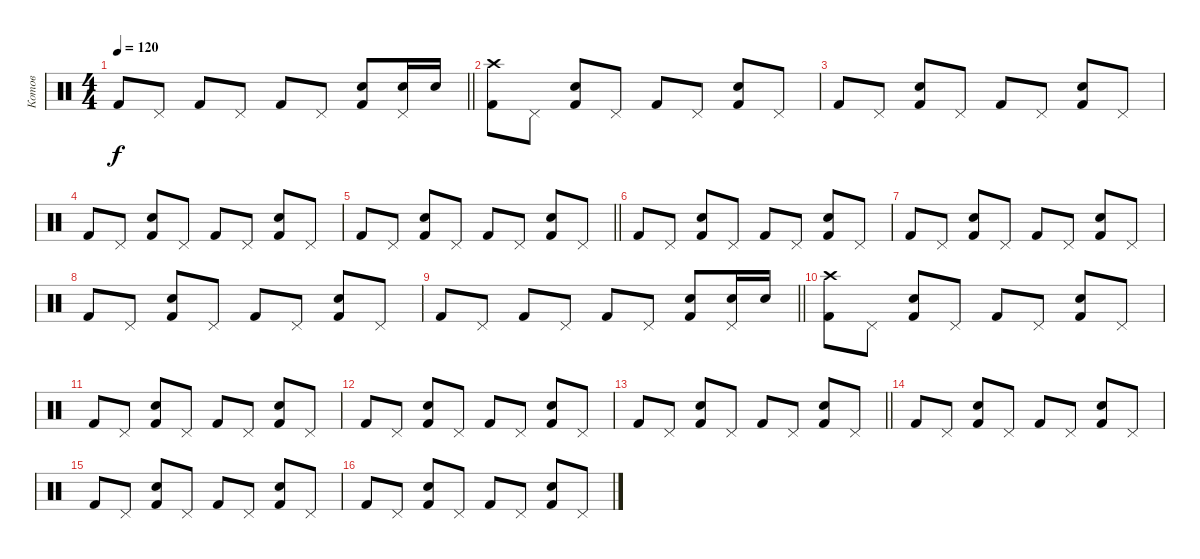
\track ("Котов" "Котов") {instrument percussion}
\staff {score}
\articulation defaults
\ts (4 4)
\tempo 120
\clef neutral
\barLineRight lightlight
\ks c "Kick (hit) 2".8{dy f} "Pedal Hi-Hat (hit)".8 "Kick (hit) 2".8 "Pedal Hi-Hat (hit)".8 "Kick (hit) 2".8 "Pedal Hi-Hat (hit)".8
("Kick (hit) 2" "Snare (hit) 2").8 ("Pedal Hi-Hat (hit)" "Snare (hit) 2").16 "Snare (hit) 2".16 |
("Kick (hit) 2" "Crash high (hit)").8 "Pedal Hi-Hat (hit)".8 ("Kick (hit) 2" "Snare (hit) 2").8 "Pedal Hi-Hat (hit)".8 "Kick (hit) 2".8 "Pedal Hi-Hat (hit)".8 ("Kick (hit) 2" "Snare (hit) 2").8 "Pedal Hi-Hat (hit)".8 |
"Kick (hit) 2".8 "Pedal Hi-Hat (hit)".8 ("Kick (hit) 2" "Snare (hit) 2").8 "Pedal Hi-Hat (hit)".8 "Kick (hit) 2".8 "Pedal Hi-Hat (hit)".8 ("Kick (hit) 2" "Snare (hit) 2").8 "Pedal Hi-Hat (hit)".8 |
"Kick (hit) 2".8 "Pedal Hi-Hat (hit)".8 ("Kick (hit) 2" "Snare (hit) 2").8 "Pedal Hi-Hat (hit)".8 "Kick (hit) 2".8 "Pedal Hi-Hat (hit)".8 ("Kick (hit) 2" "Snare (hit) 2").8 "Pedal Hi-Hat (hit)".8 |
\barLineRight lightlight "Kick (hit) 2".8 "Pedal Hi-Hat (hit)".8
("Kick (hit) 2" "Snare (hit) 2").8 "Pedal Hi-Hat (hit)".8 "Kick (hit) 2".8 "Pedal Hi-Hat (hit)".8 ("Kick (hit) 2" "Snare (hit) 2").8 "Pedal Hi-Hat (hit)".8 |
"Kick (hit) 2".8 "Pedal Hi-Hat (hit)".8 ("Kick (hit) 2" "Snare (hit) 2").8 "Pedal Hi-Hat (hit)".8 "Kick (hit) 2".8 "Pedal Hi-Hat (hit)".8 ("Kick (hit) 2" "Snare (hit) 2").8 "Pedal Hi-Hat (hit)".8 |
"Kick (hit) 2".8 "Pedal Hi-Hat (hit)".8 ("Kick (hit) 2" "Snare (hit) 2").8 "Pedal Hi-Hat (hit)".8 "Kick (hit) 2".8 "Pedal Hi-Hat (hit)".8 ("Kick (hit) 2" "Snare (hit) 2").8 "Pedal Hi-Hat (hit)".8 |
"Kick (hit) 2".8 "Pedal Hi-Hat (hit)".8 ("Kick (hit) 2" "Snare (hit) 2").8 "Pedal Hi-Hat (hit)".8 "Kick (hit) 2".8 "Pedal Hi-Hat (hit)".8 ("Kick (hit) 2" "Snare (hit) 2").8 "Pedal Hi-Hat (hit)".8 |
\barLineRight lightlight "Kick (hit) 2".8 "Pedal Hi-Hat (hit)".8 "Kick (hit) 2".8 "Pedal Hi-Hat (hit)".8 "Kick (hit) 2".8 "Pedal Hi-Hat (hit)".8
("Kick (hit) 2" "Snare (hit) 2").8 ("Pedal Hi-Hat (hit)" "Snare (hit) 2").16 "Snare (hit) 2".16 |
("Kick (hit) 2" "Crash high (hit)").8 "Pedal Hi-Hat (hit)".8 ("Kick (hit) 2" "Snare (hit) 2").8 "Pedal Hi-Hat (hit)".8 "Kick (hit) 2".8 "Pedal Hi-Hat (hit)".8 ("Kick (hit) 2" "Snare (hit) 2").8 "Pedal Hi-Hat (hit)".8 |
"Kick (hit) 2".8 "Pedal Hi-Hat (hit)".8 ("Kick (hit) 2" "Snare (hit) 2").8 "Pedal Hi-Hat (hit)".8 "Kick (hit) 2".8 "Pedal Hi-Hat (hit)".8 ("Kick (hit) 2" "Snare (hit) 2").8 "Pedal Hi-Hat (hit)".8 |
"Kick (hit) 2".8 "Pedal Hi-Hat (hit)".8 ("Kick (hit) 2" "Snare (hit) 2").8 "Pedal Hi-Hat (hit)".8 "Kick (hit) 2".8 "Pedal Hi-Hat (hit)".8 ("Kick (hit) 2" "Snare (hit) 2").8 "Pedal Hi-Hat (hit)".8 |
\barLineRight lightlight "Kick (hit) 2".8 "Pedal Hi-Hat (hit)".8
("Kick (hit) 2" "Snare (hit) 2").8 "Pedal Hi-Hat (hit)".8 "Kick (hit) 2".8 "Pedal Hi-Hat (hit)".8 ("Kick (hit) 2" "Snare (hit) 2").8 "Pedal Hi-Hat (hit)".8 |
"Kick (hit) 2".8 "Pedal Hi-Hat (hit)".8 ("Kick (hit) 2" "Snare (hit) 2").8 "Pedal Hi-Hat (hit)".8 "Kick (hit) 2".8 "Pedal Hi-Hat (hit)".8 ("Kick (hit) 2" "Snare (hit) 2").8 "Pedal Hi-Hat (hit)".8 |
"Kick (hit) 2".8 "Pedal Hi-Hat (hit)".8 ("Kick (hit) 2" "Snare (hit) 2").8 "Pedal Hi-Hat (hit)".8 "Kick (hit) 2".8 "Pedal Hi-Hat (hit)".8 ("Kick (hit) 2" "Snare (hit) 2").8 "Pedal Hi-Hat (hit)".8 |
"Kick (hit) 2".8 "Pedal Hi-Hat (hit)".8 ("Kick (hit) 2" "Snare (hit) 2").8 "Pedal Hi-Hat (hit)".8 "Kick (hit) 2".8 "Pedal Hi-Hat (hit)".8 ("Kick (hit) 2" "Snare (hit) 2").8 "Pedal Hi-Hat (hit)".8
